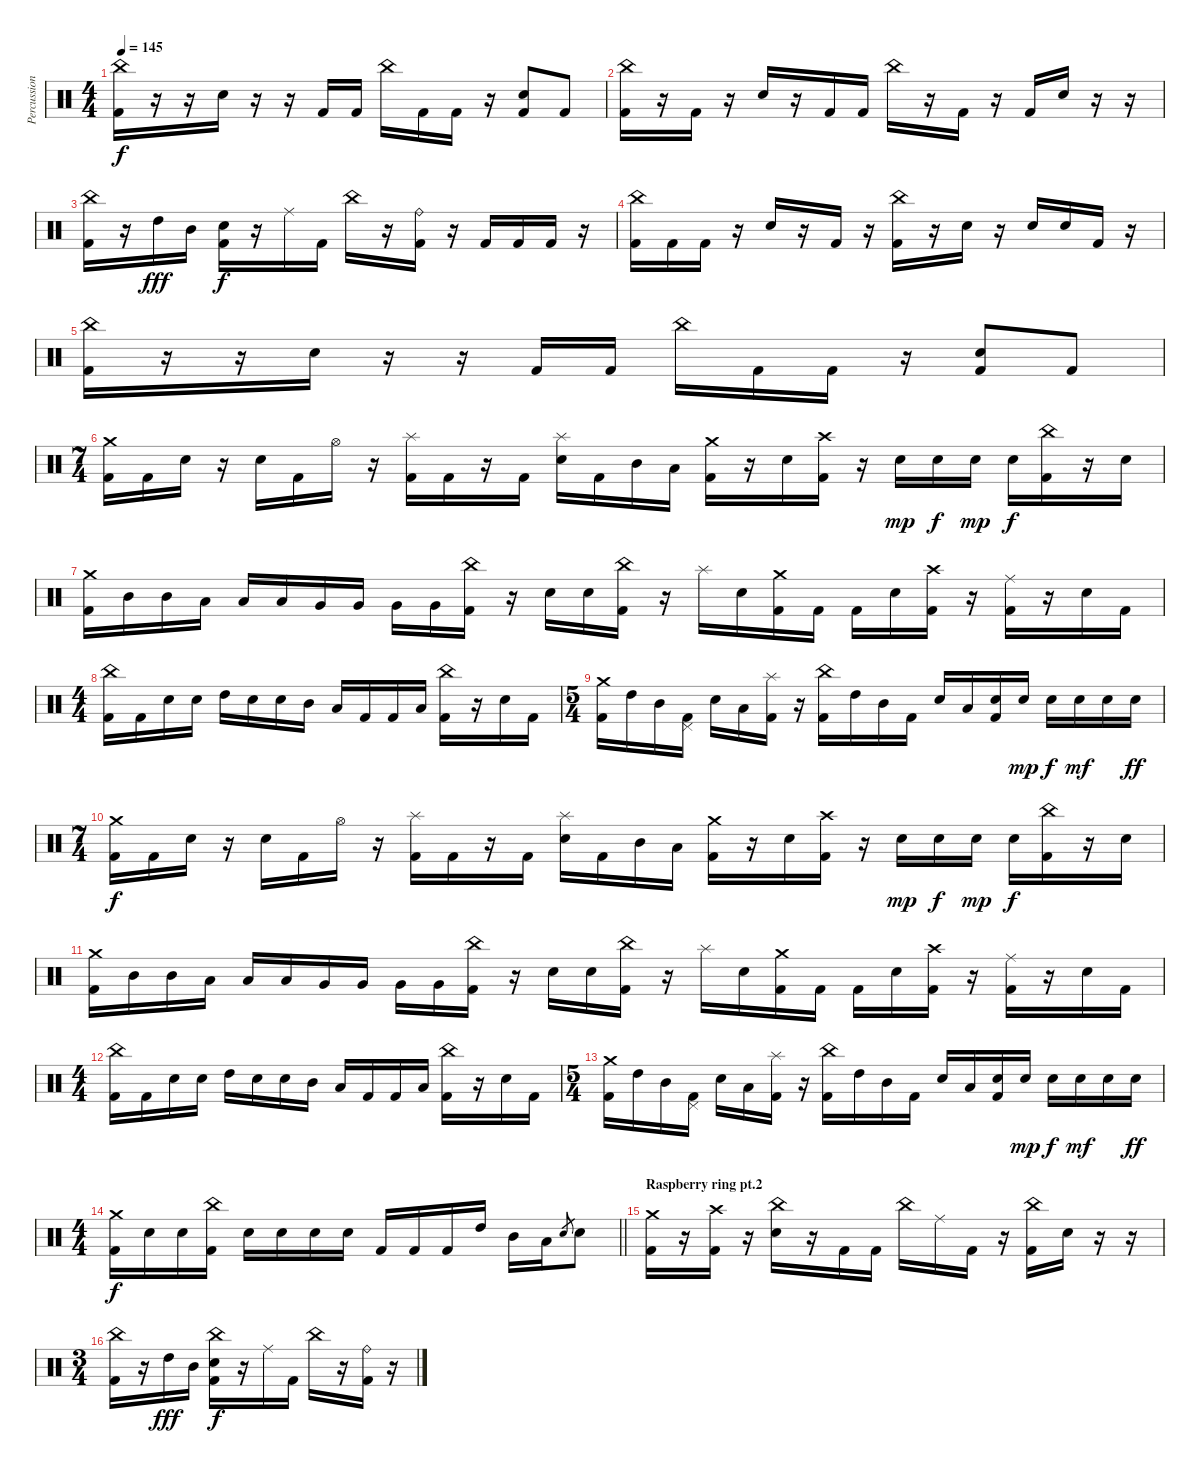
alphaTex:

\track ("Percussion" "Percussion") {instrument percussion}
\staff {score}
\articulation defaults
\ts (4 4)
\tempo 145
\clef neutral
\ks c
("China (hit)" "Kick (hit) 2").16{dy f} r.16 r.16 "Electric Snare (hit)".16 r.16 r.16 "Kick (hit) 2".16 "Kick (hit) 2".16 "China (hit)".16 "Kick (hit) 2".16 "Kick (hit) 2".16 r.16 ("Electric Snare (hit)" "Kick (hit) 2").8 "Kick (hit) 2".8 |
("China (hit)" "Kick (hit) 2").16 r.16 "Kick (hit) 2".16 r.16 "Electric Snare (hit)".16 r.16 "Kick (hit) 2".16 "Kick (hit) 2".16 "China (hit)".16 r.16 "Kick (hit) 2".16 r.16 "Kick (hit) 2".16 "Electric Snare (hit)".16 r.16 r.16 |
("China (hit)" "Kick (hit) 2").16 r.16 "High Tom (hit)".16{dy fff} "Mid Tom (hit)".16 ("Electric Snare (hit)" "Kick (hit) 2").16{dy f} r.16 "Ride (middle)".16 "Kick (hit) 2".16 "China (hit)".16 r.16 ("Ride (bell)" "Kick (hit) 2").16 r.16 "Kick (hit) 2".16 "Kick (hit) 2".16 "Kick (hit) 2".16 r.16 |
("China (hit)" "Kick (hit) 2").16 "Kick (hit) 2".16 "Kick (hit) 2".16 r.16 "Electric Snare (hit)".16 r.16 "Kick (hit) 2".16 r.16 ("China (hit)" "Kick (hit) 2").16 r.16 "Electric Snare (hit)".16 r.16 "Electric Snare (hit)".16 "Electric Snare (hit)".16 "Kick (hit) 2".16 r.16 |
("China (hit)" "Kick (hit) 2").16 r.16 r.16 "Electric Snare (hit)".16 r.16 r.16 "Kick (hit) 2".16 "Kick (hit) 2".16 "China (hit)".16 "Kick (hit) 2".16 "Kick (hit) 2".16 r.16 ("Electric Snare (hit)" "Kick (hit) 2").8 "Kick (hit) 2".8 |
\ts (7 4)
("Crash medium (hit)" "Kick (hit) 2").16 "Kick (hit) 2".16 "Electric Snare (hit)".16 r.16 "Electric Snare (hit)".16 "Kick (hit) 2".16 "Hi-Hat (open)".16 r.16 ("Splash (hit)" "Kick (hit) 2").16 "Kick (hit) 2".16 r.16 "Kick (hit) 2".16 ("Splash (hit)" "Electric Snare (hit)").16 "Kick (hit) 2".16 "Mid Tom (hit)".16 "Low Tom (hit)".16 ("Crash medium (hit)" "Kick (hit) 2").16 r.16 "Electric Snare (hit)".16 ("Crash high (hit)" "Kick (hit) 2").16 r.16 "Electric Snare (hit)".16{dy mp} "Electric Snare (hit)".16{dy f} "Electric Snare (hit)".16{dy mp} "Electric Snare (hit)".16{dy f} ("China (hit)" "Kick (hit) 2").16 r.16 "Electric Snare (hit)".16 |
("Crash medium (hit)" "Kick (hit) 2").16 "Mid Tom (hit)".16 "Mid Tom (hit)".16 "Low Tom (hit)".16 "Low Tom (hit)".16 "Low Tom (hit)".16 "Very Low Tom (hit)".16 "Very Low Tom (hit)".16 "Very Low Tom (hit)".16 "Very Low Tom (hit)".16 ("China (hit)" "Kick (hit) 2").16 r.16 "Electric Snare (hit)".16 "Electric Snare (hit)".16 ("China (hit)" "Kick (hit) 2").16 r.16 "Splash (hit)".16 "Electric Snare (hit)".16 ("Crash medium (hit)" "Kick (hit) 2").16 "Kick (hit) 2".16 "Kick (hit) 2".16 "Electric Snare (hit)".16 ("Crash high (hit)" "Kick (hit) 2").16 r.16 ("Ride (middle)" "Kick (hit) 2").16 r.16 "Electric Snare (hit)".16 "Kick (hit) 2".16 |
\ts (4 4)
("China (hit)" "Kick (hit) 2").16 "Kick (hit) 2".16 "Electric Snare (hit)".16 "Electric Snare (hit)".16 "High Tom (hit)".16 "Electric Snare (hit)".16 "Electric Snare (hit)".16 "Mid Tom (hit)".16 "Low Tom (hit)".16 "Kick (hit) 2".16 "Kick (hit) 2".16 "Low Tom (hit)".16 ("China (hit)" "Kick (hit) 2").16 r.16 "Electric Snare (hit)".16 "Kick (hit) 2".16 |
\ts (5 4)
("Crash medium (hit)" "Kick (hit) 2").16 "High Tom (hit)".16 "Mid Tom (hit)".16 ("Pedal Hi-Hat (hit)" "Kick (hit) 2").16 "Electric Snare (hit)".16 "Low Tom (hit)".16 ("Splash (hit)" "Kick (hit) 2").16 r.16 ("China (hit)" "Kick (hit) 2").16 "High Tom (hit)".16 "Mid Tom (hit)".16 "Kick (hit) 2".16 "Electric Snare (hit)".16 "Low Tom (hit)".16 ("Electric Snare (hit)" "Kick (hit) 2").16 "Electric Snare (hit)".16{dy mp} "Electric Snare (hit)".16{dy f} "Electric Snare (hit)".16{dy mf} "Electric Snare (hit)".16 "Electric Snare (hit)".16{dy ff} |
\ts (7 4)
("Crash medium (hit)" "Kick (hit) 2").16{dy f} "Kick (hit) 2".16 "Electric Snare (hit)".16 r.16 "Electric Snare (hit)".16 "Kick (hit) 2".16 "Hi-Hat (open)".16 r.16 ("Splash (hit)" "Kick (hit) 2").16 "Kick (hit) 2".16 r.16 "Kick (hit) 2".16 ("Splash (hit)" "Electric Snare (hit)").16 "Kick (hit) 2".16 "Mid Tom (hit)".16 "Low Tom (hit)".16 ("Crash medium (hit)" "Kick (hit) 2").16 r.16 "Electric Snare (hit)".16 ("Crash high (hit)" "Kick (hit) 2").16 r.16 "Electric Snare (hit)".16{dy mp} "Electric Snare (hit)".16{dy f} "Electric Snare (hit)".16{dy mp} "Electric Snare (hit)".16{dy f} ("China (hit)" "Kick (hit) 2").16 r.16 "Electric Snare (hit)".16 |
("Crash medium (hit)" "Kick (hit) 2").16 "Mid Tom (hit)".16 "Mid Tom (hit)".16 "Low Tom (hit)".16 "Low Tom (hit)".16 "Low Tom (hit)".16 "Very Low Tom (hit)".16 "Very Low Tom (hit)".16 "Very Low Tom (hit)".16 "Very Low Tom (hit)".16 ("China (hit)" "Kick (hit) 2").16 r.16 "Electric Snare (hit)".16 "Electric Snare (hit)".16 ("China (hit)" "Kick (hit) 2").16 r.16 "Splash (hit)".16 "Electric Snare (hit)".16 ("Crash medium (hit)" "Kick (hit) 2").16 "Kick (hit) 2".16 "Kick (hit) 2".16 "Electric Snare (hit)".16 ("Crash high (hit)" "Kick (hit) 2").16 r.16 ("Ride (middle)" "Kick (hit) 2").16 r.16 "Electric Snare (hit)".16 "Kick (hit) 2".16 |
\ts (4 4)
("China (hit)" "Kick (hit) 2").16 "Kick (hit) 2".16 "Electric Snare (hit)".16 "Electric Snare (hit)".16 "High Tom (hit)".16 "Electric Snare (hit)".16 "Electric Snare (hit)".16 "Mid Tom (hit)".16 "Low Tom (hit)".16 "Kick (hit) 2".16 "Kick (hit) 2".16 "Low Tom (hit)".16 ("China (hit)" "Kick (hit) 2").16 r.16 "Electric Snare (hit)".16 "Kick (hit) 2".16 |
\ts (5 4)
("Crash medium (hit)" "Kick (hit) 2").16 "High Tom (hit)".16 "Mid Tom (hit)".16 ("Pedal Hi-Hat (hit)" "Kick (hit) 2").16 "Electric Snare (hit)".16 "Low Tom (hit)".16 ("Splash (hit)" "Kick (hit) 2").16 r.16 ("China (hit)" "Kick (hit) 2").16 "High Tom (hit)".16 "Mid Tom (hit)".16 "Kick (hit) 2".16 "Electric Snare (hit)".16 "Low Tom (hit)".16 ("Electric Snare (hit)" "Kick (hit) 2").16 "Electric Snare (hit)".16{dy mp} "Electric Snare (hit)".16{dy f} "Electric Snare (hit)".16{dy mf} "Electric Snare (hit)".16 "Electric Snare (hit)".16{dy ff} |
\ts (4 4)
\barLineRight lightlight
("Crash medium (hit)" "Kick (hit) 2").16{dy f} "Electric Snare (hit)".16 "Electric Snare (hit)".16 ("China (hit)" "Kick (hit) 2").16 "Electric Snare (hit)".16 "Electric Snare (hit)".16 "Electric Snare (hit)".16 "Electric Snare (hit)".16 "Kick (hit) 2".16 "Kick (hit) 2".16 "Kick (hit) 2".16 "High Tom (hit)".16 "Mid Tom (hit)".16 "Low Tom (hit)".16 "Electric Snare (hit)".8{gr} "Electric Snare (hit)".8 |
\section ("" "Raspberry ring pt.2")
("Crash medium (hit)" "Kick (hit) 2").16 r.16 ("Crash high (hit)" "Kick (hit) 2").16 r.16 ("China (hit)" "Electric Snare (hit)").16 r.16 "Kick (hit) 2".16 "Kick (hit) 2".16 "China (hit)".16 "Ride (middle)".16 "Kick (hit) 2".16 r.16 ("China (hit)" "Kick (hit) 2").16 "Electric Snare (hit)".16 r.16 r.16 |
\ts (3 4)
("China (hit)" "Kick (hit) 2").16 r.16 "High Tom (hit)".16{dy fff} "Mid Tom (hit)".16 ("China (hit)" "Electric Snare (hit)" "Kick (hit) 2").16{dy f} r.16 "Ride (middle)".16 "Kick (hit) 2".16 "China (hit)".16 r.16 ("Ride (bell)" "Kick (hit) 2").16 r.16
